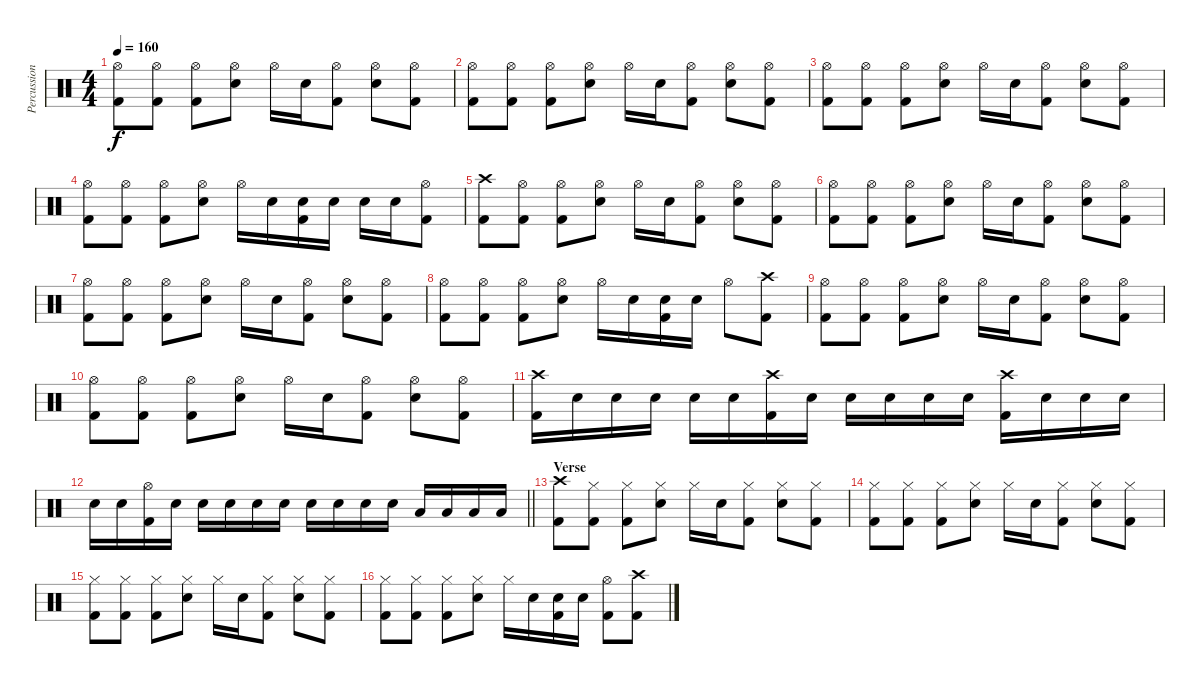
\track ("Percussion" "Percussion") {instrument percussion}
\staff {score}
\articulation defaults
\ts (4 4)
\tempo 160
\clef neutral
\ks c
("Hi-Hat (open)" "Kick (hit) 2").8{dy f} ("Hi-Hat (open)" "Kick (hit) 2").8 ("Hi-Hat (open)" "Kick (hit) 2").8 ("Hi-Hat (open)" "Electric Snare (hit)").8 "Hi-Hat (open)".16 "Electric Snare (hit)".16 ("Hi-Hat (open)" "Kick (hit) 2").8 ("Hi-Hat (open)" "Electric Snare (hit)").8 ("Hi-Hat (open)" "Kick (hit) 2").8 |
("Hi-Hat (open)" "Kick (hit) 2").8 ("Hi-Hat (open)" "Kick (hit) 2").8 ("Hi-Hat (open)" "Kick (hit) 2").8 ("Hi-Hat (open)" "Electric Snare (hit)").8 "Hi-Hat (open)".16 "Electric Snare (hit)".16 ("Hi-Hat (open)" "Kick (hit) 2").8 ("Hi-Hat (open)" "Electric Snare (hit)").8 ("Hi-Hat (open)" "Kick (hit) 2").8 |
("Hi-Hat (open)" "Kick (hit) 2").8 ("Hi-Hat (open)" "Kick (hit) 2").8 ("Hi-Hat (open)" "Kick (hit) 2").8 ("Hi-Hat (open)" "Electric Snare (hit)").8 "Hi-Hat (open)".16 "Electric Snare (hit)".16 ("Hi-Hat (open)" "Kick (hit) 2").8 ("Hi-Hat (open)" "Electric Snare (hit)").8 ("Hi-Hat (open)" "Kick (hit) 2").8 |
("Hi-Hat (open)" "Kick (hit) 2").8 ("Hi-Hat (open)" "Kick (hit) 2").8 ("Hi-Hat (open)" "Kick (hit) 2").8 ("Hi-Hat (open)" "Electric Snare (hit)").8 "Hi-Hat (open)".16 "Electric Snare (hit)".16 ("Electric Snare (hit)" "Kick (hit) 2").16 "Electric Snare (hit)".16 "Electric Snare (hit)".16 "Electric Snare (hit)".16 ("Hi-Hat (open)" "Kick (hit) 2").8 |
("Crash high (hit)" "Kick (hit) 2").8 ("Hi-Hat (open)" "Kick (hit) 2").8 ("Hi-Hat (open)" "Kick (hit) 2").8 ("Hi-Hat (open)" "Electric Snare (hit)").8 "Hi-Hat (open)".16 "Electric Snare (hit)".16 ("Hi-Hat (open)" "Kick (hit) 2").8 ("Hi-Hat (open)" "Electric Snare (hit)").8 ("Hi-Hat (open)" "Kick (hit) 2").8 |
("Hi-Hat (open)" "Kick (hit) 2").8 ("Hi-Hat (open)" "Kick (hit) 2").8 ("Hi-Hat (open)" "Kick (hit) 2").8 ("Hi-Hat (open)" "Electric Snare (hit)").8 "Hi-Hat (open)".16 "Electric Snare (hit)".16 ("Hi-Hat (open)" "Kick (hit) 2").8 ("Hi-Hat (open)" "Electric Snare (hit)").8 ("Hi-Hat (open)" "Kick (hit) 2").8 |
("Hi-Hat (open)" "Kick (hit) 2").8 ("Hi-Hat (open)" "Kick (hit) 2").8 ("Hi-Hat (open)" "Kick (hit) 2").8 ("Hi-Hat (open)" "Electric Snare (hit)").8 "Hi-Hat (open)".16 "Electric Snare (hit)".16 ("Hi-Hat (open)" "Kick (hit) 2").8 ("Hi-Hat (open)" "Electric Snare (hit)").8 ("Hi-Hat (open)" "Kick (hit) 2").8 |
("Hi-Hat (open)" "Kick (hit) 2").8 ("Hi-Hat (open)" "Kick (hit) 2").8 ("Hi-Hat (open)" "Kick (hit) 2").8 ("Hi-Hat (open)" "Electric Snare (hit)").8 "Hi-Hat (open)".16 "Electric Snare (hit)".16 ("Electric Snare (hit)" "Kick (hit) 2").16 "Electric Snare (hit)".16 "Hi-Hat (open)".8 ("Crash high (hit)" "Kick (hit) 2").8 |
("Hi-Hat (open)" "Kick (hit) 2").8 ("Hi-Hat (open)" "Kick (hit) 2").8 ("Hi-Hat (open)" "Kick (hit) 2").8 ("Hi-Hat (open)" "Electric Snare (hit)").8 "Hi-Hat (open)".16 "Electric Snare (hit)".16 ("Hi-Hat (open)" "Kick (hit) 2").8 ("Hi-Hat (open)" "Electric Snare (hit)").8 ("Hi-Hat (open)" "Kick (hit) 2").8 |
("Hi-Hat (open)" "Kick (hit) 2").8 ("Hi-Hat (open)" "Kick (hit) 2").8 ("Hi-Hat (open)" "Kick (hit) 2").8 ("Hi-Hat (open)" "Electric Snare (hit)").8 "Hi-Hat (open)".16 "Electric Snare (hit)".16 ("Hi-Hat (open)" "Kick (hit) 2").8 ("Hi-Hat (open)" "Electric Snare (hit)").8 ("Hi-Hat (open)" "Kick (hit) 2").8 |
("Crash high (hit)" "Kick (hit) 2").16 "Electric Snare (hit)".16 "Electric Snare (hit)".16 "Electric Snare (hit)".16 "Electric Snare (hit)".16 "Electric Snare (hit)".16 ("Crash high (hit)" "Kick (hit) 2").16 "Electric Snare (hit)".16 "Electric Snare (hit)".16 "Electric Snare (hit)".16 "Electric Snare (hit)".16 "Electric Snare (hit)".16 ("Crash high (hit)" "Kick (hit) 2").16 "Electric Snare (hit)".16 "Electric Snare (hit)".16 "Electric Snare (hit)".16 |
\barLineRight lightlight "Electric Snare (hit)".16 "Electric Snare (hit)".16
("Hi-Hat (open)" "Kick (hit) 2").16 "Electric Snare (hit)".16 "Electric Snare (hit)".16 "Electric Snare (hit)".16 "Electric Snare (hit)".16 "Electric Snare (hit)".16 "Electric Snare (hit)".16 "Electric Snare (hit)".16 "Electric Snare (hit)".16 "Electric Snare (hit)".16 "Low Tom (hit)".16 "Low Tom (hit)".16 "Low Tom (hit)".16 "Low Tom (hit)".16 |
\section ("" "Verse")
("Crash high (hit)" "Kick (hit) 2").8 ("Hi-Hat (closed)" "Kick (hit) 2").8 ("Hi-Hat (closed)" "Kick (hit) 2").8 ("Hi-Hat (closed)" "Electric Snare (hit)").8 "Hi-Hat (closed)".16 "Electric Snare (hit)".16 ("Hi-Hat (closed)" "Kick (hit) 2").8 ("Hi-Hat (closed)" "Electric Snare (hit)").8 ("Hi-Hat (closed)" "Kick (hit) 2").8 |
("Hi-Hat (closed)" "Kick (hit) 2").8 ("Hi-Hat (closed)" "Kick (hit) 2").8 ("Hi-Hat (closed)" "Kick (hit) 2").8 ("Hi-Hat (closed)" "Electric Snare (hit)").8 "Hi-Hat (closed)".16 "Electric Snare (hit)".16 ("Hi-Hat (closed)" "Kick (hit) 2").8 ("Hi-Hat (closed)" "Electric Snare (hit)").8 ("Hi-Hat (closed)" "Kick (hit) 2").8 |
("Hi-Hat (closed)" "Kick (hit) 2").8 ("Hi-Hat (closed)" "Kick (hit) 2").8 ("Hi-Hat (closed)" "Kick (hit) 2").8 ("Hi-Hat (closed)" "Electric Snare (hit)").8 "Hi-Hat (closed)".16 "Electric Snare (hit)".16 ("Hi-Hat (closed)" "Kick (hit) 2").8 ("Hi-Hat (closed)" "Electric Snare (hit)").8 ("Hi-Hat (closed)" "Kick (hit) 2").8 |
("Hi-Hat (closed)" "Kick (hit) 2").8 ("Hi-Hat (closed)" "Kick (hit) 2").8 ("Hi-Hat (closed)" "Kick (hit) 2").8 ("Hi-Hat (closed)" "Electric Snare (hit)").8 "Hi-Hat (closed)".16 "Electric Snare (hit)".16 ("Electric Snare (hit)" "Kick (hit) 2").16 "Electric Snare (hit)".16 ("Hi-Hat (open)" "Kick (hit) 2").8 ("Crash high (hit)" "Kick (hit) 2").8
